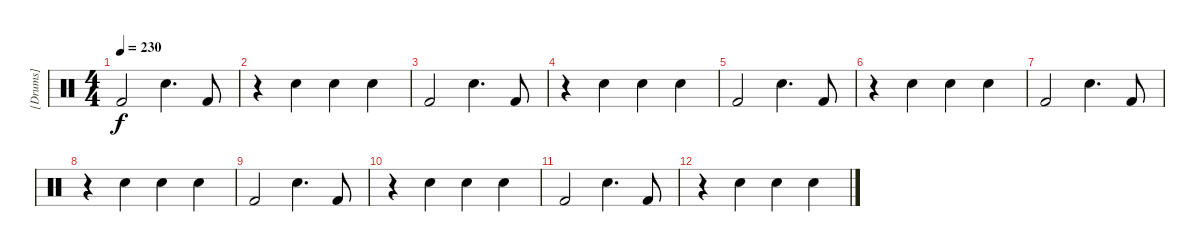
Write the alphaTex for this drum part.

\track ("[Drums]" "[Drums]") {instrument percussion}
\staff {score}
\articulation defaults
\ts (4 4)
\tempo 230
\clef neutral
\ks c "Kick (hit) 2".2{dy f} "Electric Snare (hit)".4{d} "Kick (hit) 2".8
|
r.4 "Hand Clap (hit)".4 "Electric Snare (hit)".4 "Hand Clap (hit)".4 |
"Kick (hit) 2".2 "Electric Snare (hit)".4{d} "Kick (hit) 2".8 |
r.4 "Hand Clap (hit)".4 "Electric Snare (hit)".4 "Hand Clap (hit)".4 |
"Kick (hit) 2".2 "Electric Snare (hit)".4{d} "Kick (hit) 2".8 |
r.4 "Hand Clap (hit)".4 "Electric Snare (hit)".4 "Hand Clap (hit)".4 |
"Kick (hit) 2".2 "Electric Snare (hit)".4{d} "Kick (hit) 2".8 |
r.4 "Hand Clap (hit)".4 "Electric Snare (hit)".4 "Hand Clap (hit)".4 |
"Kick (hit) 2".2 "Electric Snare (hit)".4{d} "Kick (hit) 2".8 |
r.4 "Hand Clap (hit)".4 "Electric Snare (hit)".4 "Hand Clap (hit)".4 |
"Kick (hit) 2".2 "Electric Snare (hit)".4{d} "Kick (hit) 2".8 |
r.4 "Hand Clap (hit)".4 "Electric Snare (hit)".4 "Hand Clap (hit)".4
